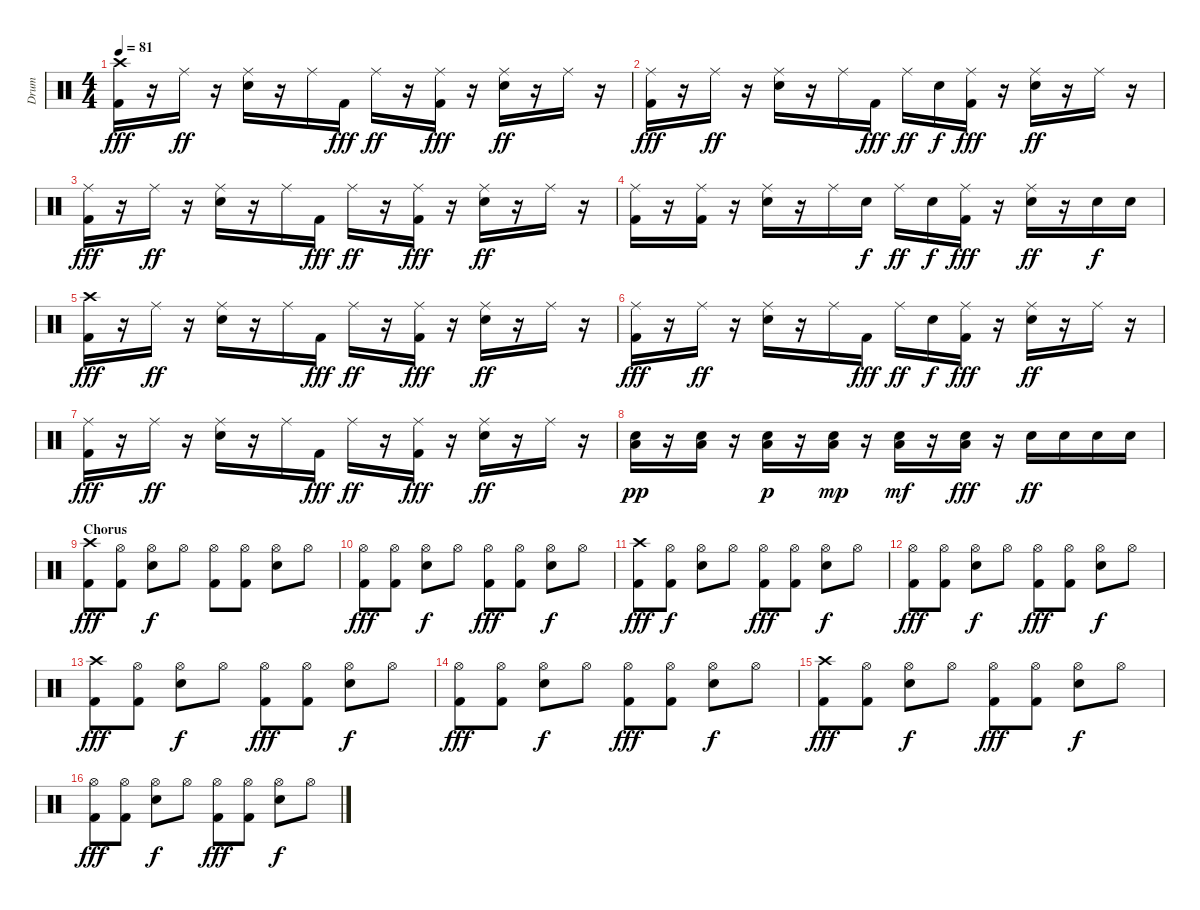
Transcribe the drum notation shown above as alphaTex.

\track ("Drum" "Drum") {instrument percussion}
\staff {score}
\articulation defaults
\ts (4 4)
\tempo 81
\clef neutral
\ks c
("Crash high (hit)" "Kick (hit) 2").16{dy fff} r.16 "Ride (middle)".16{dy ff} r.16 ("Ride (middle)" "Electric Snare (hit)").16 r.16 "Ride (middle)".16 "Kick (hit) 2".16{dy fff} "Ride (middle)".16{dy ff} r.16 ("Ride (middle)" "Kick (hit) 2").16{dy fff} r.16 ("Ride (middle)" "Electric Snare (hit)").16{dy ff} r.16 "Ride (middle)".16 r.16 |
("Ride (middle)" "Kick (hit) 2").16{dy fff} r.16 "Ride (middle)".16{dy ff} r.16 ("Ride (middle)" "Electric Snare (hit)").16 r.16 "Ride (middle)".16 "Kick (hit) 2".16{dy fff} "Ride (middle)".16{dy ff} "Electric Snare (hit)".16{dy f} ("Ride (middle)" "Kick (hit) 2").16{dy fff} r.16 ("Ride (middle)" "Electric Snare (hit)").16{dy ff} r.16 "Ride (middle)".16 r.16 |
("Ride (middle)" "Kick (hit) 2").16{dy fff} r.16 "Ride (middle)".16{dy ff} r.16 ("Ride (middle)" "Electric Snare (hit)").16 r.16 "Ride (middle)".16 "Kick (hit) 2".16{dy fff} "Ride (middle)".16{dy ff} r.16 ("Ride (middle)" "Kick (hit) 2").16{dy fff} r.16 ("Ride (middle)" "Electric Snare (hit)").16{dy ff} r.16 "Ride (middle)".16 r.16 |
("Ride (middle)" "Kick (hit) 2").16 r.16 ("Ride (middle)" "Kick (hit) 2").16 r.16 ("Ride (middle)" "Electric Snare (hit)").16 r.16 "Ride (middle)".16 "Electric Snare (hit)".16{dy f} "Ride (middle)".16{dy ff} "Electric Snare (hit)".16{dy f} ("Ride (middle)" "Kick (hit) 2").16{dy fff} r.16 ("Ride (middle)" "Electric Snare (hit)").16{dy ff} r.16 "Electric Snare (hit)".16{dy f} "Electric Snare (hit)".16 |
("Crash high (hit)" "Kick (hit) 2").16{dy fff} r.16 "Ride (middle)".16{dy ff} r.16 ("Ride (middle)" "Electric Snare (hit)").16 r.16 "Ride (middle)".16 "Kick (hit) 2".16{dy fff} "Ride (middle)".16{dy ff} r.16 ("Ride (middle)" "Kick (hit) 2").16{dy fff} r.16 ("Ride (middle)" "Electric Snare (hit)").16{dy ff} r.16 "Ride (middle)".16 r.16 |
("Ride (middle)" "Kick (hit) 2").16{dy fff} r.16 "Ride (middle)".16{dy ff} r.16 ("Ride (middle)" "Electric Snare (hit)").16 r.16 "Ride (middle)".16 "Kick (hit) 2".16{dy fff} "Ride (middle)".16{dy ff} "Electric Snare (hit)".16{dy f} ("Ride (middle)" "Kick (hit) 2").16{dy fff} r.16 ("Ride (middle)" "Electric Snare (hit)").16{dy ff} r.16 "Ride (middle)".16 r.16 |
("Ride (middle)" "Kick (hit) 2").16{dy fff} r.16 "Ride (middle)".16{dy ff} r.16 ("Ride (middle)" "Electric Snare (hit)").16 r.16 "Ride (middle)".16 "Kick (hit) 2".16{dy fff} "Ride (middle)".16{dy ff} r.16 ("Ride (middle)" "Kick (hit) 2").16{dy fff} r.16 ("Ride (middle)" "Electric Snare (hit)").16{dy ff} r.16 "Ride (middle)".16 r.16 |
("Low Floor Tom (hit)" "Electric Snare (hit)").16{dy pp} r.16 ("Low Floor Tom (hit)" "Electric Snare (hit)").16 r.16 ("Low Floor Tom (hit)" "Electric Snare (hit)").16{dy p} r.16 ("Low Floor Tom (hit)" "Electric Snare (hit)").16{dy mp} r.16 ("Low Floor Tom (hit)" "Electric Snare (hit)").16{dy mf} r.16 ("Low Floor Tom (hit)" "Electric Snare (hit)").16{dy fff} r.16 "Electric Snare (hit)".16{dy ff} "Electric Snare (hit)".16 "Electric Snare (hit)".16 "Electric Snare (hit)".16 |
\section ("" "Chorus ")
("Crash high (hit)" "Kick (hit) 2").8{dy fff} ("Hi-Hat (open)" "Kick (hit) 2").8 ("Hi-Hat (open)" "Electric Snare (hit)").8{dy f} "Hi-Hat (open)".8 ("Hi-Hat (open)" "Kick (hit) 2").8 ("Hi-Hat (open)" "Kick (hit) 2").8 ("Hi-Hat (open)" "Electric Snare (hit)").8 "Hi-Hat (open)".8 |
("Hi-Hat (open)" "Kick (hit) 2").8{dy fff} ("Hi-Hat (open)" "Kick (hit) 2").8 ("Hi-Hat (open)" "Electric Snare (hit)").8{dy f} "Hi-Hat (open)".8 ("Hi-Hat (open)" "Kick (hit) 2").8{dy fff} ("Hi-Hat (open)" "Kick (hit) 2").8 ("Hi-Hat (open)" "Electric Snare (hit)").8{dy f} "Hi-Hat (open)".8 |
("Crash high (hit)" "Kick (hit) 2").8{dy fff} ("Hi-Hat (open)" "Kick (hit) 2").8{dy f} ("Hi-Hat (open)" "Electric Snare (hit)").8 "Hi-Hat (open)".8 ("Hi-Hat (open)" "Kick (hit) 2").8{dy fff} ("Hi-Hat (open)" "Kick (hit) 2").8 ("Hi-Hat (open)" "Electric Snare (hit)").8{dy f} "Hi-Hat (open)".8 |
("Hi-Hat (open)" "Kick (hit) 2").8{dy fff} ("Hi-Hat (open)" "Kick (hit) 2").8 ("Hi-Hat (open)" "Electric Snare (hit)").8{dy f} "Hi-Hat (open)".8 ("Hi-Hat (open)" "Kick (hit) 2").8{dy fff} ("Hi-Hat (open)" "Kick (hit) 2").8 ("Hi-Hat (open)" "Electric Snare (hit)").8{dy f} "Hi-Hat (open)".8 |
("Crash high (hit)" "Kick (hit) 2").8{dy fff} ("Hi-Hat (open)" "Kick (hit) 2").8 ("Hi-Hat (open)" "Electric Snare (hit)").8{dy f} "Hi-Hat (open)".8 ("Hi-Hat (open)" "Kick (hit) 2").8{dy fff} ("Hi-Hat (open)" "Kick (hit) 2").8 ("Hi-Hat (open)" "Electric Snare (hit)").8{dy f} "Hi-Hat (open)".8 |
("Hi-Hat (open)" "Kick (hit) 2").8{dy fff} ("Hi-Hat (open)" "Kick (hit) 2").8 ("Hi-Hat (open)" "Electric Snare (hit)").8{dy f} "Hi-Hat (open)".8 ("Hi-Hat (open)" "Kick (hit) 2").8{dy fff} ("Hi-Hat (open)" "Kick (hit) 2").8 ("Hi-Hat (open)" "Electric Snare (hit)").8{dy f} "Hi-Hat (open)".8 |
("Crash high (hit)" "Kick (hit) 2").8{dy fff} ("Hi-Hat (open)" "Kick (hit) 2").8 ("Hi-Hat (open)" "Electric Snare (hit)").8{dy f} "Hi-Hat (open)".8 ("Hi-Hat (open)" "Kick (hit) 2").8{dy fff} ("Hi-Hat (open)" "Kick (hit) 2").8 ("Hi-Hat (open)" "Electric Snare (hit)").8{dy f} "Hi-Hat (open)".8 |
("Hi-Hat (open)" "Kick (hit) 2").8{dy fff} ("Hi-Hat (open)" "Kick (hit) 2").8 ("Hi-Hat (open)" "Electric Snare (hit)").8{dy f} "Hi-Hat (open)".8 ("Hi-Hat (open)" "Kick (hit) 2").8{dy fff} ("Hi-Hat (open)" "Kick (hit) 2").8 ("Hi-Hat (open)" "Electric Snare (hit)").8{dy f} "Hi-Hat (open)".8
